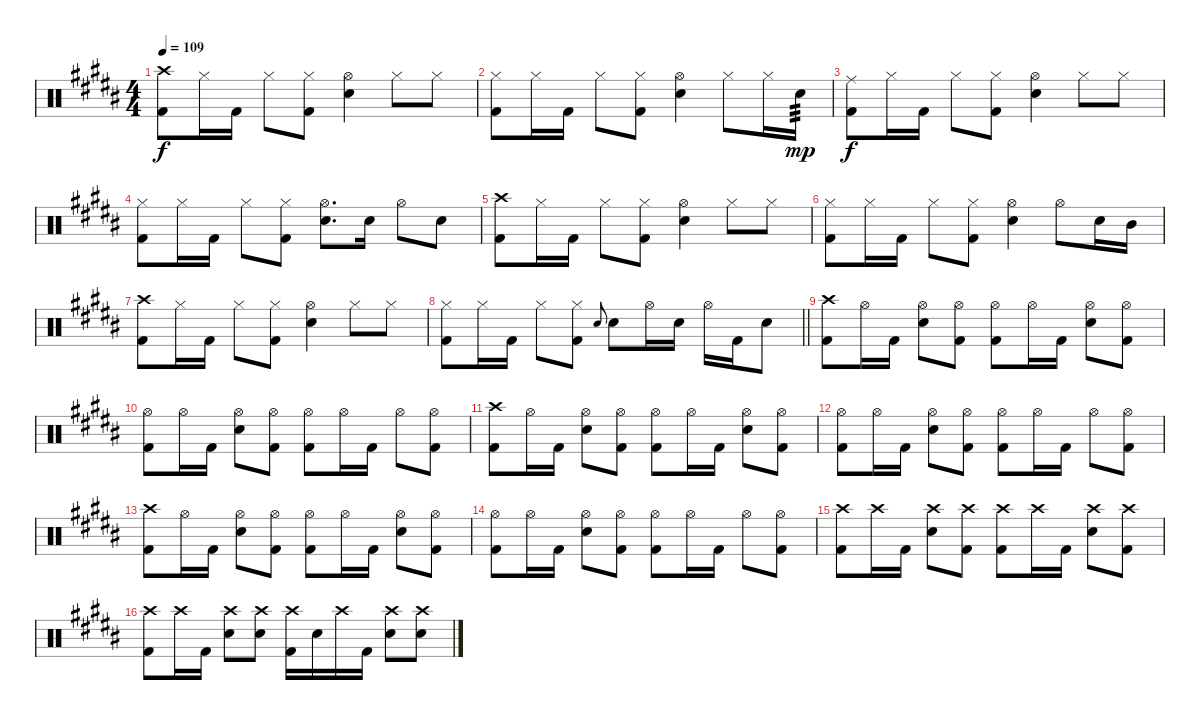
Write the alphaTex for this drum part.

\track "" {instrument percussion}
\staff {score}
\articulation defaults
\ts (4 4)
\tempo 109
\clef neutral
\ks g#minor
("Crash high (hit)" "Kick (hit) 2").8{dy f} "Hi-Hat (closed)".16 "Kick (hit) 2".16 "Hi-Hat (closed)".8 ("Hi-Hat (closed)" "Kick (hit) 2").8 ("Hi-Hat (open)" "Snare (hit) 2").4 "Hi-Hat (closed)".8 "Hi-Hat (closed)".8 |
("Hi-Hat (closed)" "Kick (hit) 2").8 "Hi-Hat (closed)".16 "Kick (hit) 2".16 "Hi-Hat (closed)".8 ("Hi-Hat (closed)" "Kick (hit) 2").8 ("Hi-Hat (open)" "Snare (hit) 2").4 "Hi-Hat (closed)".8 "Hi-Hat (closed)".16 "Snare (hit) 2".16{tp 3 dy mp} |
("Ride (middle)" "Kick (hit) 2").8{dy f} "Hi-Hat (closed)".16 "Kick (hit) 2".16 "Hi-Hat (closed)".8 ("Hi-Hat (closed)" "Kick (hit) 2").8 ("Hi-Hat (open)" "Snare (hit) 2").4 "Hi-Hat (closed)".8 "Hi-Hat (closed)".8 |
("Hi-Hat (closed)" "Kick (hit) 2").8 "Hi-Hat (closed)".16 "Kick (hit) 2".16 "Hi-Hat (closed)".8 ("Hi-Hat (closed)" "Kick (hit) 2").8 ("Hi-Hat (open)" "Snare (hit) 2").8{d} "Snare (hit) 2".16 "Hi-Hat (open)".8 "Snare (hit) 2".8 |
("Crash high (hit)" "Kick (hit) 2").8 "Hi-Hat (closed)".16 "Kick (hit) 2".16 "Hi-Hat (closed)".8 ("Hi-Hat (closed)" "Kick (hit) 2").8 ("Hi-Hat (open)" "Snare (hit) 2").4 "Hi-Hat (closed)".8 "Hi-Hat (closed)".8 |
("Hi-Hat (closed)" "Kick (hit) 2").8 "Hi-Hat (closed)".16 "Kick (hit) 2".16 "Hi-Hat (closed)".8 ("Hi-Hat (closed)" "Kick (hit) 2").8 ("Hi-Hat (open)" "Snare (hit) 2").4 "Hi-Hat (open)".8 "Snare (hit) 2".16 "Mid Tom (hit)".16 |
("Crash high (hit)" "Kick (hit) 2").8 "Hi-Hat (closed)".16 "Kick (hit) 2".16 "Hi-Hat (closed)".8 ("Hi-Hat (closed)" "Kick (hit) 2").8 ("Hi-Hat (open)" "Snare (hit) 2").4 "Hi-Hat (closed)".8 "Hi-Hat (closed)".8 |
\barLineRight lightlight
("Hi-Hat (closed)" "Kick (hit) 2").8 "Hi-Hat (closed)".16 "Kick (hit) 2".16 "Hi-Hat (closed)".8 ("Hi-Hat (closed)" "Kick (hit) 2").8 "Snare (hit) 2".8{gr onbeat} "Snare (hit) 2".8 "Hi-Hat (open)".16 "Snare (hit) 2".16 "Hi-Hat (open)".16 "Kick (hit) 2".16 "Snare (hit) 2".8 |
("Crash high (hit)" "Kick (hit) 2").8 "Hi-Hat (open)".16 "Kick (hit) 2".16 ("Hi-Hat (open)" "Snare (hit) 2").8 ("Hi-Hat (open)" "Kick (hit) 2").8 ("Hi-Hat (open)" "Kick (hit) 2").8 "Hi-Hat (open)".16 "Kick (hit) 2".16 ("Hi-Hat (open)" "Snare (hit) 2").8 ("Hi-Hat (open)" "Kick (hit) 2").8 |
("Hi-Hat (open)" "Kick (hit) 2").8 "Hi-Hat (open)".16 "Kick (hit) 2".16 ("Hi-Hat (open)" "Snare (hit) 2").8 ("Hi-Hat (open)" "Kick (hit) 2").8 ("Hi-Hat (open)" "Kick (hit) 2").8 "Hi-Hat (open)".16 "Kick (hit) 2".16 "Hi-Hat (open)".8 ("Hi-Hat (open)" "Kick (hit) 2").8 |
("Crash high (hit)" "Kick (hit) 2").8 "Hi-Hat (open)".16 "Kick (hit) 2".16 ("Hi-Hat (open)" "Snare (hit) 2").8 ("Hi-Hat (open)" "Kick (hit) 2").8 ("Hi-Hat (open)" "Kick (hit) 2").8 "Hi-Hat (open)".16 "Kick (hit) 2".16 ("Hi-Hat (open)" "Snare (hit) 2").8 ("Hi-Hat (open)" "Kick (hit) 2").8 |
("Hi-Hat (open)" "Kick (hit) 2").8 "Hi-Hat (open)".16 "Kick (hit) 2".16 ("Hi-Hat (open)" "Snare (hit) 2").8 ("Hi-Hat (open)" "Kick (hit) 2").8 ("Hi-Hat (open)" "Kick (hit) 2").8 "Hi-Hat (open)".16 "Kick (hit) 2".16 "Hi-Hat (open)".8 ("Hi-Hat (open)" "Kick (hit) 2").8 |
("Crash high (hit)" "Kick (hit) 2").8 "Hi-Hat (open)".16 "Kick (hit) 2".16 ("Hi-Hat (open)" "Snare (hit) 2").8 ("Hi-Hat (open)" "Kick (hit) 2").8 ("Hi-Hat (open)" "Kick (hit) 2").8 "Hi-Hat (open)".16 "Kick (hit) 2".16 ("Hi-Hat (open)" "Snare (hit) 2").8 ("Hi-Hat (open)" "Kick (hit) 2").8 |
("Hi-Hat (open)" "Kick (hit) 2").8 "Hi-Hat (open)".16 "Kick (hit) 2".16 ("Hi-Hat (open)" "Snare (hit) 2").8 ("Hi-Hat (open)" "Kick (hit) 2").8 ("Hi-Hat (open)" "Kick (hit) 2").8 "Hi-Hat (open)".16 "Kick (hit) 2".16 "Hi-Hat (open)".8 ("Hi-Hat (open)" "Kick (hit) 2").8 |
("Crash high (hit)" "Kick (hit) 2").8 "Crash high (hit)".16 "Kick (hit) 2".16 ("Crash high (hit)" "Snare (hit) 2").8 ("Crash high (hit)" "Kick (hit) 2").8 ("Crash high (hit)" "Kick (hit) 2").8 "Crash high (hit)".16 "Kick (hit) 2".16 ("Crash high (hit)" "Snare (hit) 2").8 ("Crash high (hit)" "Kick (hit) 2").8 |
("Crash high (hit)" "Kick (hit) 2").8 "Crash high (hit)".16 "Kick (hit) 2".16 ("Crash high (hit)" "Snare (hit) 2").8 ("Crash high (hit)" "Snare (hit) 2").8 ("Crash high (hit)" "Kick (hit) 2").16 "Snare (hit) 2".16 "Crash high (hit)".16 "Kick (hit) 2".16 ("Crash high (hit)" "Snare (hit) 2").8 ("Crash high (hit)" "Snare (hit) 2").8
